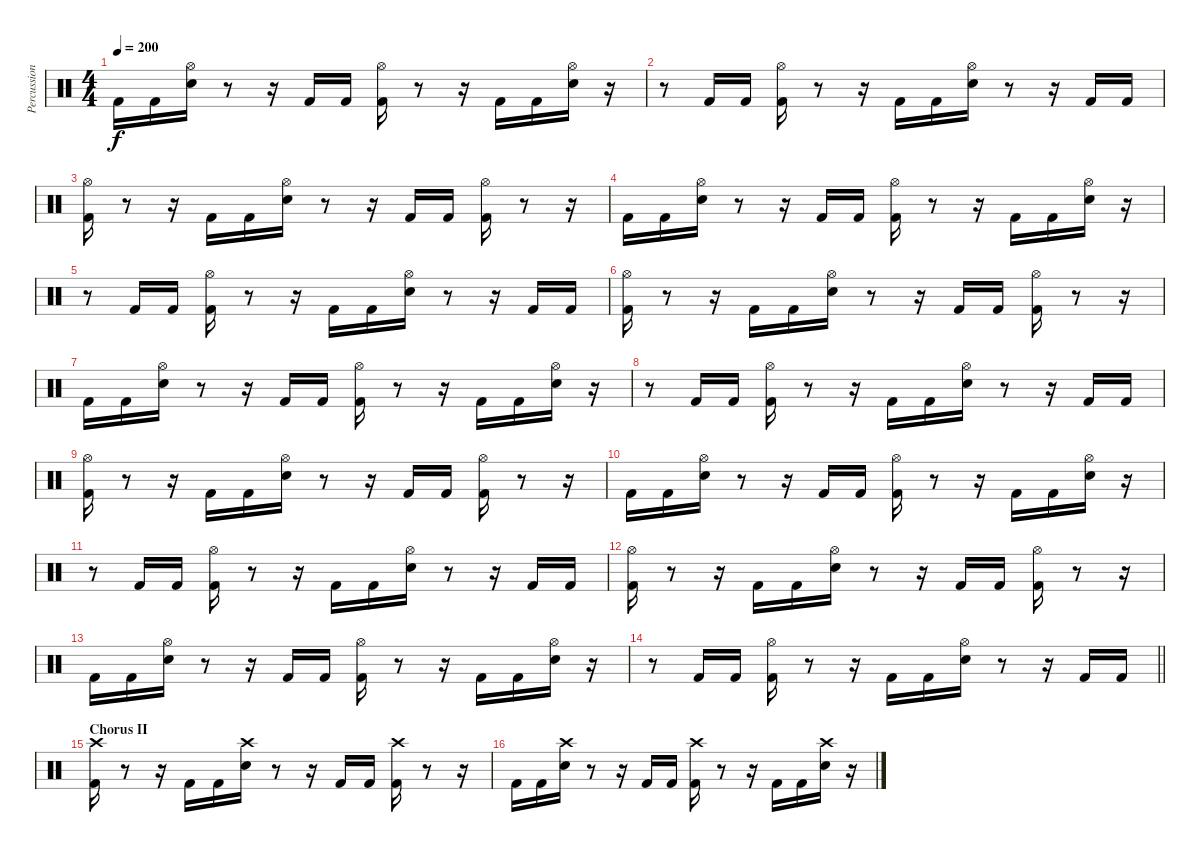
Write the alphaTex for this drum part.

\track ("Percussion" "Percussion") {instrument percussion}
\staff {score}
\articulation defaults
\ts (4 4)
\tempo 200
\clef neutral
\ks c "Kick (hit) 2".16{dy f} "Kick (hit) 2".16
("Hi-Hat (open)" "Electric Snare (hit)").16 r.8 r.16 "Kick (hit) 2".16 "Kick (hit) 2".16 ("Hi-Hat (open)" "Kick (hit) 2").16 r.8 r.16 "Kick (hit) 2".16 "Kick (hit) 2".16 ("Hi-Hat (open)" "Electric Snare (hit)").16 r.16 |
r.8 "Kick (hit) 2".16 "Kick (hit) 2".16 ("Hi-Hat (open)" "Kick (hit) 2").16 r.8 r.16 "Kick (hit) 2".16 "Kick (hit) 2".16 ("Hi-Hat (open)" "Electric Snare (hit)").16 r.8 r.16 "Kick (hit) 2".16 "Kick (hit) 2".16 |
("Hi-Hat (open)" "Kick (hit) 2").16 r.8 r.16 "Kick (hit) 2".16 "Kick (hit) 2".16 ("Hi-Hat (open)" "Electric Snare (hit)").16 r.8 r.16 "Kick (hit) 2".16 "Kick (hit) 2".16 ("Hi-Hat (open)" "Kick (hit) 2").16 r.8 r.16 |
"Kick (hit) 2".16 "Kick (hit) 2".16 ("Hi-Hat (open)" "Electric Snare (hit)").16 r.8 r.16 "Kick (hit) 2".16 "Kick (hit) 2".16 ("Hi-Hat (open)" "Kick (hit) 2").16 r.8 r.16 "Kick (hit) 2".16 "Kick (hit) 2".16 ("Hi-Hat (open)" "Electric Snare (hit)").16 r.16 |
r.8 "Kick (hit) 2".16 "Kick (hit) 2".16 ("Hi-Hat (open)" "Kick (hit) 2").16 r.8 r.16 "Kick (hit) 2".16 "Kick (hit) 2".16 ("Hi-Hat (open)" "Electric Snare (hit)").16 r.8 r.16 "Kick (hit) 2".16 "Kick (hit) 2".16 |
("Hi-Hat (open)" "Kick (hit) 2").16 r.8 r.16 "Kick (hit) 2".16 "Kick (hit) 2".16 ("Hi-Hat (open)" "Electric Snare (hit)").16 r.8 r.16 "Kick (hit) 2".16 "Kick (hit) 2".16 ("Hi-Hat (open)" "Kick (hit) 2").16 r.8 r.16 |
"Kick (hit) 2".16 "Kick (hit) 2".16 ("Hi-Hat (open)" "Electric Snare (hit)").16 r.8 r.16 "Kick (hit) 2".16 "Kick (hit) 2".16 ("Hi-Hat (open)" "Kick (hit) 2").16 r.8 r.16 "Kick (hit) 2".16 "Kick (hit) 2".16 ("Hi-Hat (open)" "Electric Snare (hit)").16 r.16 |
r.8 "Kick (hit) 2".16 "Kick (hit) 2".16 ("Hi-Hat (open)" "Kick (hit) 2").16 r.8 r.16 "Kick (hit) 2".16 "Kick (hit) 2".16 ("Hi-Hat (open)" "Electric Snare (hit)").16 r.8 r.16 "Kick (hit) 2".16 "Kick (hit) 2".16 |
("Hi-Hat (open)" "Kick (hit) 2").16 r.8 r.16 "Kick (hit) 2".16 "Kick (hit) 2".16 ("Hi-Hat (open)" "Electric Snare (hit)").16 r.8 r.16 "Kick (hit) 2".16 "Kick (hit) 2".16 ("Hi-Hat (open)" "Kick (hit) 2").16 r.8 r.16 |
"Kick (hit) 2".16 "Kick (hit) 2".16 ("Hi-Hat (open)" "Electric Snare (hit)").16 r.8 r.16 "Kick (hit) 2".16 "Kick (hit) 2".16 ("Hi-Hat (open)" "Kick (hit) 2").16 r.8 r.16 "Kick (hit) 2".16 "Kick (hit) 2".16 ("Hi-Hat (open)" "Electric Snare (hit)").16 r.16 |
r.8 "Kick (hit) 2".16 "Kick (hit) 2".16 ("Hi-Hat (open)" "Kick (hit) 2").16 r.8 r.16 "Kick (hit) 2".16 "Kick (hit) 2".16 ("Hi-Hat (open)" "Electric Snare (hit)").16 r.8 r.16 "Kick (hit) 2".16 "Kick (hit) 2".16 |
("Hi-Hat (open)" "Kick (hit) 2").16 r.8 r.16 "Kick (hit) 2".16 "Kick (hit) 2".16 ("Hi-Hat (open)" "Electric Snare (hit)").16 r.8 r.16 "Kick (hit) 2".16 "Kick (hit) 2".16 ("Hi-Hat (open)" "Kick (hit) 2").16 r.8 r.16 |
"Kick (hit) 2".16 "Kick (hit) 2".16 ("Hi-Hat (open)" "Electric Snare (hit)").16 r.8 r.16 "Kick (hit) 2".16 "Kick (hit) 2".16 ("Hi-Hat (open)" "Kick (hit) 2").16 r.8 r.16 "Kick (hit) 2".16 "Kick (hit) 2".16 ("Hi-Hat (open)" "Electric Snare (hit)").16 r.16 |
\barLineRight lightlight
r.8 "Kick (hit) 2".16 "Kick (hit) 2".16 ("Hi-Hat (open)" "Kick (hit) 2").16 r.8 r.16 "Kick (hit) 2".16 "Kick (hit) 2".16 ("Hi-Hat (open)" "Electric Snare (hit)").16 r.8 r.16 "Kick (hit) 2".16 "Kick (hit) 2".16 |
\section ("" "Chorus II")
("Crash high (hit)" "Kick (hit) 2").16 r.8 r.16 "Kick (hit) 2".16 "Kick (hit) 2".16 ("Crash high (hit)" "Electric Snare (hit)").16 r.8 r.16 "Kick (hit) 2".16 "Kick (hit) 2".16 ("Crash high (hit)" "Kick (hit) 2").16 r.8 r.16 |
"Kick (hit) 2".16 "Kick (hit) 2".16 ("Crash high (hit)" "Electric Snare (hit)").16 r.8 r.16 "Kick (hit) 2".16 "Kick (hit) 2".16 ("Crash high (hit)" "Kick (hit) 2").16 r.8 r.16 "Kick (hit) 2".16 "Kick (hit) 2".16 ("Crash high (hit)" "Electric Snare (hit)").16 r.16
